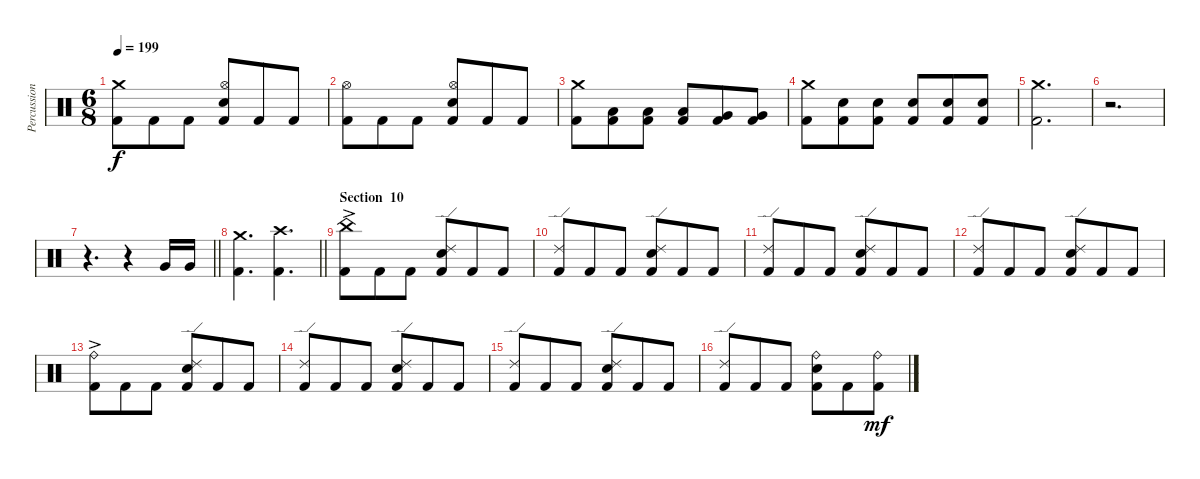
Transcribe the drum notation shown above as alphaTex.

\track ("Percussion" "Percussion") {instrument percussion}
\staff {score}
\articulation defaults
\ts (6 8)
\tempo 199
\clef neutral
\ks c
("Crash medium (hit)" "Kick (hit) 2").8{dy f} "Kick (hit) 2".8 "Kick (hit) 2".8 ("Hi-Hat (open)" "Electric Snare (hit)" "Kick (hit) 2").8 "Kick (hit) 2".8 "Kick (hit) 2".8 |
("Hi-Hat (open)" "Kick (hit) 2").8 "Kick (hit) 2".8 "Kick (hit) 2".8 ("Hi-Hat (open)" "Electric Snare (hit)" "Kick (hit) 2").8 "Kick (hit) 2".8 "Kick (hit) 2".8 |
("Crash medium (hit)" "Kick (hit) 2").8 ("Low Tom (hit)" "Kick (hit) 2").8 ("Low Tom (hit)" "Kick (hit) 2").8 ("Low Tom (hit)" "Kick (hit) 2").8 ("Very Low Tom (hit)" "Kick (hit) 2").8 ("Very Low Tom (hit)" "Kick (hit) 2").8 |
("Crash medium (hit)" "Kick (hit) 2").8 ("Electric Snare (hit)" "Kick (hit) 2").8 ("Electric Snare (hit)" "Kick (hit) 2").8 ("Electric Snare (hit)" "Kick (hit) 2").8 ("Electric Snare (hit)" "Kick (hit) 2").8 ("Electric Snare (hit)" "Kick (hit) 2").8 |
("Crash medium (hit)" "Kick (hit) 2").2{d} |
r.2{d} |
\barLineRight lightlight
r.4{d} r.4 "Very Low Tom (hit)".16 "Very Low Tom (hit)".16 |
\barLineRight lightlight
("Crash medium (hit)" "Kick (hit) 2").4{d} ("Crash high (hit)" "Kick (hit) 2").4{d} |
\section ("" "Section  10")
("China (hit)"{ac} "Kick (hit) 2").8 "Kick (hit) 2".8 "Kick (hit) 2".8 ("Ride (edge) 2" "Electric Snare (hit)" "Kick (hit) 2").8 "Kick (hit) 2".8 "Kick (hit) 2".8 |
("Ride (edge) 2" "Kick (hit) 2").8 "Kick (hit) 2".8 "Kick (hit) 2".8 ("Ride (edge) 2" "Electric Snare (hit)" "Kick (hit) 2").8 "Kick (hit) 2".8 "Kick (hit) 2".8 |
("Ride (edge) 2" "Kick (hit) 2").8 "Kick (hit) 2".8 "Kick (hit) 2".8 ("Ride (edge) 2" "Electric Snare (hit)" "Kick (hit) 2").8 "Kick (hit) 2".8 "Kick (hit) 2".8 |
("Ride (edge) 2" "Kick (hit) 2").8 "Kick (hit) 2".8 "Kick (hit) 2".8 ("Ride (edge) 2" "Electric Snare (hit)" "Kick (hit) 2").8 "Kick (hit) 2".8 "Kick (hit) 2".8 |
("Ride (bell)"{ac} "Kick (hit) 2").8 "Kick (hit) 2".8 "Kick (hit) 2".8 ("Ride (edge) 2" "Electric Snare (hit)" "Kick (hit) 2").8 "Kick (hit) 2".8 "Kick (hit) 2".8 |
("Ride (edge) 2" "Kick (hit) 2").8 "Kick (hit) 2".8 "Kick (hit) 2".8 ("Ride (edge) 2" "Electric Snare (hit)" "Kick (hit) 2").8 "Kick (hit) 2".8 "Kick (hit) 2".8 |
("Ride (edge) 2" "Kick (hit) 2").8 "Kick (hit) 2".8 "Kick (hit) 2".8 ("Ride (edge) 2" "Electric Snare (hit)" "Kick (hit) 2").8 "Kick (hit) 2".8 "Kick (hit) 2".8 |
("Ride (edge) 2" "Kick (hit) 2").8 "Kick (hit) 2".8 "Kick (hit) 2".8 ("Ride (bell)" "Electric Snare (hit)" "Kick (hit) 2").8 "Kick (hit) 2".8 ("Ride (bell)" "Kick (hit) 2").8{dy mf}
